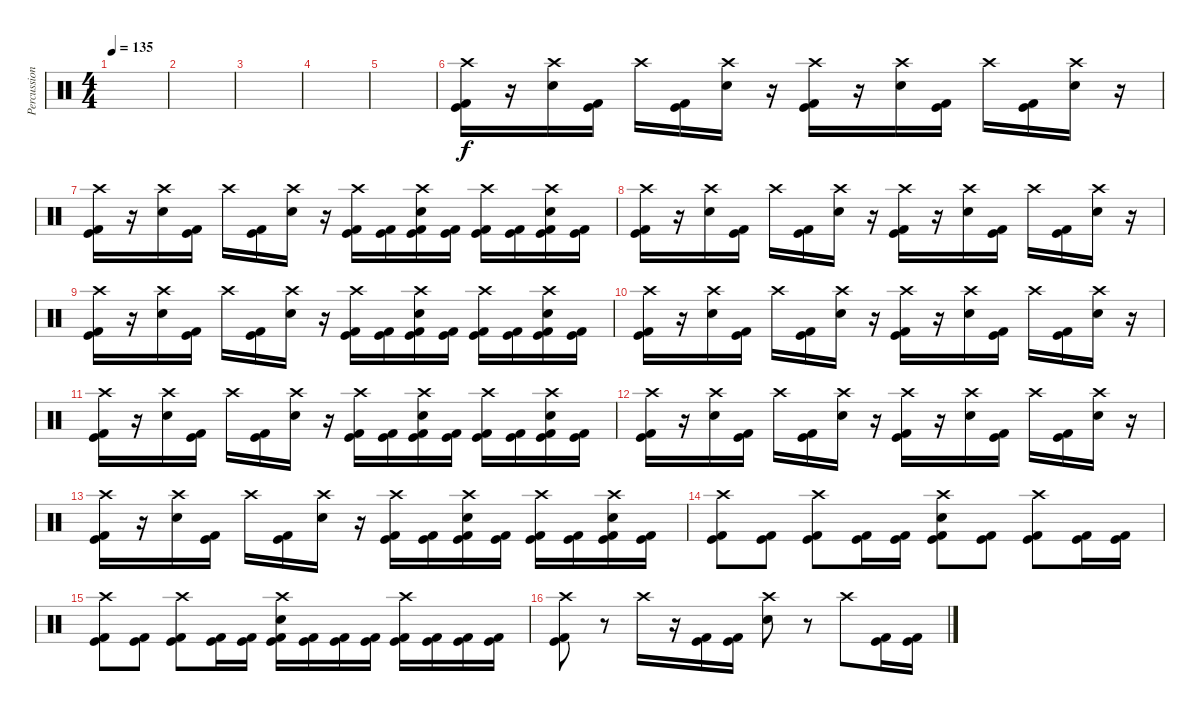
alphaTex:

\track ("Percussion" "Percussion") {instrument percussion}
\staff {score}
\articulation defaults
\ts (4 4)
\tempo 135
\clef neutral
\ks c
|
|
|
|
|
("Crash high (hit)" "Kick (hit)" "Kick (hit) 2").16 r.16 ("Crash high (hit)" "Electric Snare (hit)").16 ("Kick (hit) 2" "Kick (hit)").16 "Crash high (hit)".16 ("Kick (hit) 2" "Kick (hit)").16 ("Crash high (hit)" "Electric Snare (hit)").16 r.16 ("Crash high (hit)" "Kick (hit)" "Kick (hit) 2").16 r.16 ("Crash high (hit)" "Electric Snare (hit)").16 ("Kick (hit) 2" "Kick (hit)").16 "Crash high (hit)".16 ("Kick (hit) 2" "Kick (hit)").16 ("Crash high (hit)" "Electric Snare (hit)").16 r.16 |
("Crash high (hit)" "Kick (hit)" "Kick (hit) 2").16 r.16 ("Crash high (hit)" "Electric Snare (hit)").16 ("Kick (hit) 2" "Kick (hit)").16 "Crash high (hit)".16 ("Kick (hit) 2" "Kick (hit)").16 ("Crash high (hit)" "Electric Snare (hit)").16 r.16 ("Crash high (hit)" "Kick (hit) 2" "Kick (hit)").16 ("Kick (hit) 2" "Kick (hit)").16 ("Crash high (hit)" "Electric Snare (hit)" "Kick (hit) 2" "Kick (hit)").16 ("Kick (hit) 2" "Kick (hit)").16 ("Crash high (hit)" "Kick (hit) 2" "Kick (hit)").16 ("Kick (hit) 2" "Kick (hit)").16 ("Crash high (hit)" "Electric Snare (hit)" "Kick (hit) 2" "Kick (hit)").16 ("Kick (hit) 2" "Kick (hit)").16 |
("Crash high (hit)" "Kick (hit)" "Kick (hit) 2").16 r.16 ("Crash high (hit)" "Electric Snare (hit)").16 ("Kick (hit) 2" "Kick (hit)").16 "Crash high (hit)".16 ("Kick (hit) 2" "Kick (hit)").16 ("Crash high (hit)" "Electric Snare (hit)").16 r.16 ("Crash high (hit)" "Kick (hit)" "Kick (hit) 2").16 r.16 ("Crash high (hit)" "Electric Snare (hit)").16 ("Kick (hit) 2" "Kick (hit)").16 "Crash high (hit)".16 ("Kick (hit) 2" "Kick (hit)").16 ("Crash high (hit)" "Electric Snare (hit)").16 r.16 |
("Crash high (hit)" "Kick (hit)" "Kick (hit) 2").16 r.16 ("Crash high (hit)" "Electric Snare (hit)").16 ("Kick (hit) 2" "Kick (hit)").16 "Crash high (hit)".16 ("Kick (hit) 2" "Kick (hit)").16 ("Crash high (hit)" "Electric Snare (hit)").16 r.16 ("Crash high (hit)" "Kick (hit) 2" "Kick (hit)").16 ("Kick (hit) 2" "Kick (hit)").16 ("Crash high (hit)" "Electric Snare (hit)" "Kick (hit) 2" "Kick (hit)").16 ("Kick (hit) 2" "Kick (hit)").16 ("Crash high (hit)" "Kick (hit) 2" "Kick (hit)").16 ("Kick (hit) 2" "Kick (hit)").16 ("Crash high (hit)" "Electric Snare (hit)" "Kick (hit) 2" "Kick (hit)").16 ("Kick (hit) 2" "Kick (hit)").16 |
("Crash high (hit)" "Kick (hit)" "Kick (hit) 2").16 r.16 ("Crash high (hit)" "Electric Snare (hit)").16 ("Kick (hit) 2" "Kick (hit)").16 "Crash high (hit)".16 ("Kick (hit) 2" "Kick (hit)").16 ("Crash high (hit)" "Electric Snare (hit)").16 r.16 ("Crash high (hit)" "Kick (hit)" "Kick (hit) 2").16 r.16 ("Crash high (hit)" "Electric Snare (hit)").16 ("Kick (hit) 2" "Kick (hit)").16 "Crash high (hit)".16 ("Kick (hit) 2" "Kick (hit)").16 ("Crash high (hit)" "Electric Snare (hit)").16 r.16 |
("Crash high (hit)" "Kick (hit)" "Kick (hit) 2").16 r.16 ("Crash high (hit)" "Electric Snare (hit)").16 ("Kick (hit) 2" "Kick (hit)").16 "Crash high (hit)".16 ("Kick (hit) 2" "Kick (hit)").16 ("Crash high (hit)" "Electric Snare (hit)").16 r.16 ("Crash high (hit)" "Kick (hit) 2" "Kick (hit)").16 ("Kick (hit) 2" "Kick (hit)").16 ("Crash high (hit)" "Electric Snare (hit)" "Kick (hit) 2" "Kick (hit)").16 ("Kick (hit) 2" "Kick (hit)").16 ("Crash high (hit)" "Kick (hit) 2" "Kick (hit)").16 ("Kick (hit) 2" "Kick (hit)").16 ("Crash high (hit)" "Electric Snare (hit)" "Kick (hit) 2" "Kick (hit)").16 ("Kick (hit) 2" "Kick (hit)").16 |
("Crash high (hit)" "Kick (hit)" "Kick (hit) 2").16 r.16 ("Crash high (hit)" "Electric Snare (hit)").16 ("Kick (hit) 2" "Kick (hit)").16 "Crash high (hit)".16 ("Kick (hit) 2" "Kick (hit)").16 ("Crash high (hit)" "Electric Snare (hit)").16 r.16 ("Crash high (hit)" "Kick (hit)" "Kick (hit) 2").16 r.16 ("Crash high (hit)" "Electric Snare (hit)").16 ("Kick (hit) 2" "Kick (hit)").16 "Crash high (hit)".16 ("Kick (hit) 2" "Kick (hit)").16 ("Crash high (hit)" "Electric Snare (hit)").16 r.16 |
("Crash high (hit)" "Kick (hit)" "Kick (hit) 2").16 r.16 ("Crash high (hit)" "Electric Snare (hit)").16 ("Kick (hit) 2" "Kick (hit)").16 "Crash high (hit)".16 ("Kick (hit) 2" "Kick (hit)").16 ("Crash high (hit)" "Electric Snare (hit)").16 r.16 ("Crash high (hit)" "Kick (hit) 2" "Kick (hit)").16 ("Kick (hit) 2" "Kick (hit)").16 ("Crash high (hit)" "Electric Snare (hit)" "Kick (hit) 2" "Kick (hit)").16 ("Kick (hit) 2" "Kick (hit)").16 ("Crash high (hit)" "Kick (hit) 2" "Kick (hit)").16 ("Kick (hit) 2" "Kick (hit)").16 ("Crash high (hit)" "Electric Snare (hit)" "Kick (hit) 2" "Kick (hit)").16 ("Kick (hit) 2" "Kick (hit)").16 |
("Crash high (hit)" "Kick (hit)" "Kick (hit) 2").8 ("Kick (hit)" "Kick (hit) 2").8 ("Crash high (hit)" "Kick (hit)" "Kick (hit) 2").8 ("Kick (hit)" "Kick (hit) 2").16 ("Kick (hit)" "Kick (hit) 2").16 ("Crash high (hit)" "Electric Snare (hit)" "Kick (hit)" "Kick (hit) 2").8 ("Kick (hit)" "Kick (hit) 2").8 ("Crash high (hit)" "Kick (hit)" "Kick (hit) 2").8 ("Kick (hit)" "Kick (hit) 2").16 ("Kick (hit)" "Kick (hit) 2").16 |
("Crash high (hit)" "Kick (hit)" "Kick (hit) 2").8 ("Kick (hit)" "Kick (hit) 2").8 ("Crash high (hit)" "Kick (hit)" "Kick (hit) 2").8 ("Kick (hit)" "Kick (hit) 2").16 ("Kick (hit)" "Kick (hit) 2").16 ("Crash high (hit)" "Electric Snare (hit)" "Kick (hit)" "Kick (hit) 2").16 ("Kick (hit)" "Kick (hit) 2").16 ("Kick (hit)" "Kick (hit) 2").16 ("Kick (hit)" "Kick (hit) 2").16 ("Crash high (hit)" "Kick (hit)" "Kick (hit) 2").16 ("Kick (hit)" "Kick (hit) 2").16 ("Kick (hit)" "Kick (hit) 2").16 ("Kick (hit)" "Kick (hit) 2").16 |
("Crash high (hit)" "Kick (hit)" "Kick (hit) 2").8 r.8 "Crash high (hit)".16 r.16 ("Kick (hit)" "Kick (hit) 2").16 ("Kick (hit)" "Kick (hit) 2").16 ("Crash high (hit)" "Electric Snare (hit)").8 r.8 "Crash high (hit)".8 ("Kick (hit)" "Kick (hit) 2").16 ("Kick (hit)" "Kick (hit) 2").16
